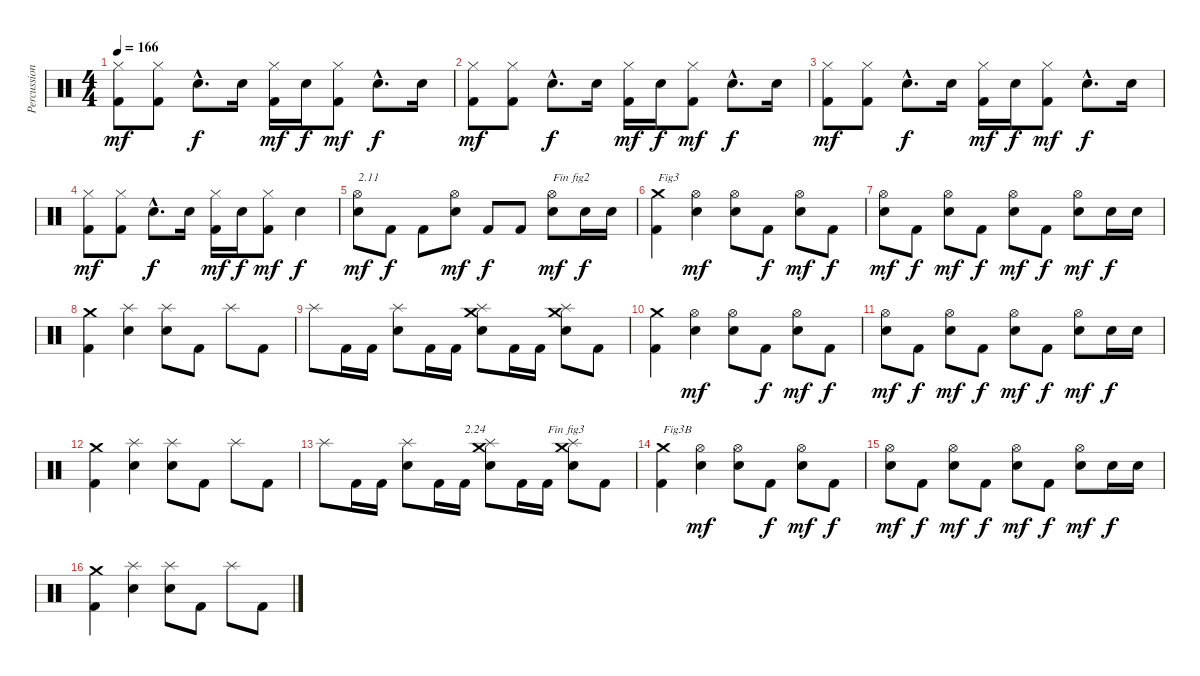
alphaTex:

\track ("Percussions" "Percussion") {instrument percussion}
\staff {score}
\articulation defaults
\ts (4 4)
\tempo 166
\clef neutral
\ks c
("Kick (hit) 2" "Hi-Hat (closed)").8{dy mf} ("Kick (hit) 2" "Hi-Hat (closed)").8 "Electric Snare (hit)"{hac}.8{d dy f} "Electric Snare (hit)".16 ("Kick (hit) 2" "Hi-Hat (closed)").16{dy mf} "Electric Snare (hit)".16{dy f} ("Kick (hit) 2" "Hi-Hat (closed)").8{dy mf} "Electric Snare (hit)"{hac}.8{d dy f} "Electric Snare (hit)".16 |
("Kick (hit) 2" "Hi-Hat (closed)").8{dy mf} ("Kick (hit) 2" "Hi-Hat (closed)").8 "Electric Snare (hit)"{hac}.8{d dy f} "Electric Snare (hit)".16 ("Kick (hit) 2" "Hi-Hat (closed)").16{dy mf} "Electric Snare (hit)".16{dy f} ("Kick (hit) 2" "Hi-Hat (closed)").8{dy mf} "Electric Snare (hit)"{hac}.8{d dy f} "Electric Snare (hit)".16 |
("Kick (hit) 2" "Hi-Hat (closed)").8{dy mf} ("Kick (hit) 2" "Hi-Hat (closed)").8 "Electric Snare (hit)"{hac}.8{d dy f} "Electric Snare (hit)".16 ("Kick (hit) 2" "Hi-Hat (closed)").16{dy mf} "Electric Snare (hit)".16{dy f} ("Kick (hit) 2" "Hi-Hat (closed)").8{dy mf} "Electric Snare (hit)"{hac}.8{d dy f} "Electric Snare (hit)".16 |
("Kick (hit) 2" "Hi-Hat (closed)").8{dy mf} ("Kick (hit) 2" "Hi-Hat (closed)").8 "Electric Snare (hit)"{hac}.8{d dy f} "Electric Snare (hit)".16 ("Kick (hit) 2" "Hi-Hat (closed)").16{dy mf} "Electric Snare (hit)".16{dy f} ("Kick (hit) 2" "Hi-Hat (closed)").8{dy mf} "Electric Snare (hit)".4{dy f} |
("Electric Snare (hit)" "Hi-Hat (open)").8{txt "2.11" dy mf} "Kick (hit) 2".8{dy f} "Kick (hit) 2".8 ("Electric Snare (hit)" "Hi-Hat (open)").8{dy mf} "Kick (hit) 2".8{dy f} "Kick (hit) 2".8 ("Electric Snare (hit)" "Hi-Hat (open)").8{txt "Fin fig2" dy mf} "Electric Snare (hit)".16{dy f} "Electric Snare (hit)".16 |
("Kick (hit) 2" "Crash medium (hit)").4{txt "Fig3"} ("Electric Snare (hit)" "Hi-Hat (open)").4{dy mf} ("Electric Snare (hit)" "Hi-Hat (open)").8 "Kick (hit) 2".8{dy f} ("Electric Snare (hit)" "Hi-Hat (open)").8{dy mf} "Kick (hit) 2".8{dy f} |
("Electric Snare (hit)" "Hi-Hat (open)").8{dy mf} "Kick (hit) 2".8{dy f} ("Electric Snare (hit)" "Hi-Hat (open)").8{dy mf} "Kick (hit) 2".8{dy f} ("Electric Snare (hit)" "Hi-Hat (open)").8{dy mf} "Kick (hit) 2".8{dy f} ("Electric Snare (hit)" "Hi-Hat (open)").8{dy mf} "Electric Snare (hit)".16{dy f} "Electric Snare (hit)".16 |
("Kick (hit) 2" "Crash medium (hit)").4 ("Electric Snare (hit)" "Splash (hit)").4 ("Electric Snare (hit)" "Splash (hit)").8 "Kick (hit) 2".8 "Splash (hit)".8 "Kick (hit) 2".8 |
"Splash (hit)".8 "Kick (hit) 2".16 "Kick (hit) 2".16 ("Electric Snare (hit)" "Splash (hit)").8 "Kick (hit) 2".16 "Kick (hit) 2".16 ("Electric Snare (hit)" "Splash (hit)" "Crash medium (hit)").8 "Kick (hit) 2".16 "Kick (hit) 2".16 ("Electric Snare (hit)" "Splash (hit)" "Crash medium (hit)").8 "Kick (hit) 2".8 |
("Kick (hit) 2" "Crash medium (hit)").4 ("Electric Snare (hit)" "Hi-Hat (open)").4{dy mf} ("Electric Snare (hit)" "Hi-Hat (open)").8 "Kick (hit) 2".8{dy f} ("Electric Snare (hit)" "Hi-Hat (open)").8{dy mf} "Kick (hit) 2".8{dy f} |
("Electric Snare (hit)" "Hi-Hat (open)").8{dy mf} "Kick (hit) 2".8{dy f} ("Electric Snare (hit)" "Hi-Hat (open)").8{dy mf} "Kick (hit) 2".8{dy f} ("Electric Snare (hit)" "Hi-Hat (open)").8{dy mf} "Kick (hit) 2".8{dy f} ("Electric Snare (hit)" "Hi-Hat (open)").8{dy mf} "Electric Snare (hit)".16{dy f} "Electric Snare (hit)".16 |
("Kick (hit) 2" "Crash medium (hit)").4 ("Electric Snare (hit)" "Splash (hit)").4 ("Electric Snare (hit)" "Splash (hit)").8 "Kick (hit) 2".8 "Splash (hit)".8 "Kick (hit) 2".8 |
"Splash (hit)".8 "Kick (hit) 2".16 "Kick (hit) 2".16 ("Electric Snare (hit)" "Splash (hit)").8 "Kick (hit) 2".16 "Kick (hit) 2".16{txt "2.24"} ("Electric Snare (hit)" "Splash (hit)" "Crash medium (hit)").8 "Kick (hit) 2".16 "Kick (hit) 2".16{txt "Fin fig3"} ("Electric Snare (hit)" "Splash (hit)" "Crash medium (hit)").8 "Kick (hit) 2".8 |
("Kick (hit) 2" "Crash medium (hit)").4{txt "Fig3B"} ("Electric Snare (hit)" "Hi-Hat (open)").4{dy mf} ("Electric Snare (hit)" "Hi-Hat (open)").8 "Kick (hit) 2".8{dy f} ("Electric Snare (hit)" "Hi-Hat (open)").8{dy mf} "Kick (hit) 2".8{dy f} |
("Electric Snare (hit)" "Hi-Hat (open)").8{dy mf} "Kick (hit) 2".8{dy f} ("Electric Snare (hit)" "Hi-Hat (open)").8{dy mf} "Kick (hit) 2".8{dy f} ("Electric Snare (hit)" "Hi-Hat (open)").8{dy mf} "Kick (hit) 2".8{dy f} ("Electric Snare (hit)" "Hi-Hat (open)").8{dy mf} "Electric Snare (hit)".16{dy f} "Electric Snare (hit)".16 |
("Kick (hit) 2" "Crash medium (hit)").4 ("Electric Snare (hit)" "Splash (hit)").4 ("Electric Snare (hit)" "Splash (hit)").8 "Kick (hit) 2".8 "Splash (hit)".8 "Kick (hit) 2".8
